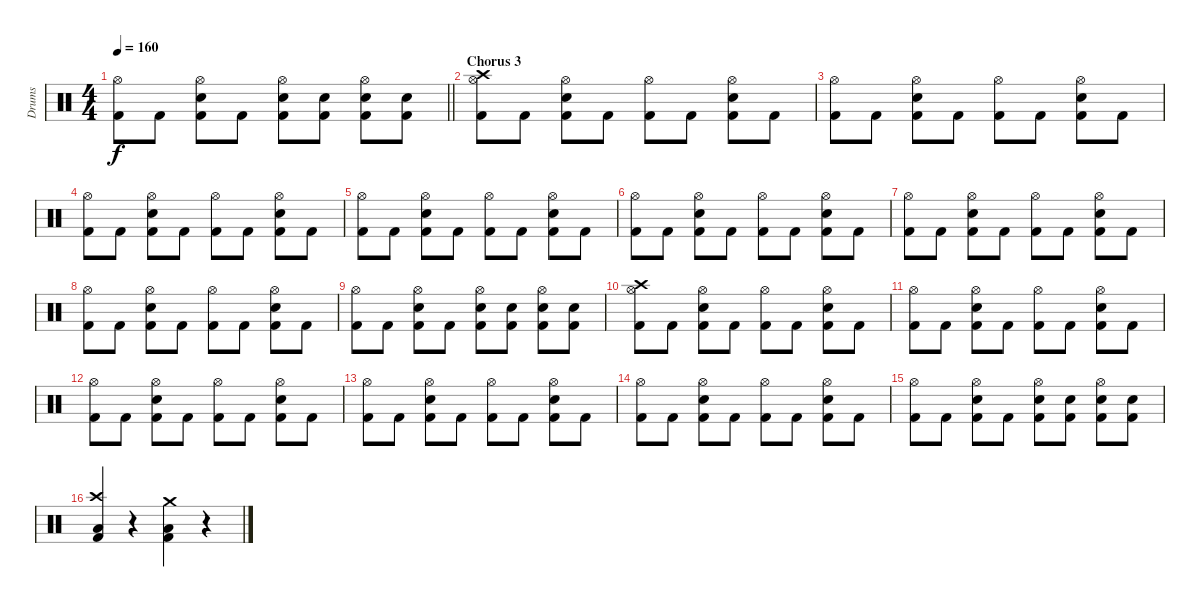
\track ("Drums" "Drums") {instrument percussion}
\staff {score}
\articulation defaults
\ts (4 4)
\tempo 160
\clef neutral
\barLineRight lightlight
\ks c
("Hi-Hat (open)" "Kick (hit) 2").8{dy f} "Kick (hit) 2".8 ("Hi-Hat (open)" "Snare (hit) 2" "Kick (hit) 2").8 "Kick (hit) 2".8 ("Hi-Hat (open)" "Snare (hit) 2" "Kick (hit) 2").8 ("Snare (hit) 2" "Kick (hit) 2").8 ("Hi-Hat (open)" "Snare (hit) 2" "Kick (hit) 2").8 ("Snare (hit) 2" "Kick (hit) 2").8 |
\section ("" "Chorus 3")
("Crash high (hit)" "Hi-Hat (open)" "Kick (hit) 2").8 "Kick (hit) 2".8 ("Hi-Hat (open)" "Snare (hit) 2" "Kick (hit) 2").8 "Kick (hit) 2".8 ("Hi-Hat (open)" "Kick (hit) 2").8 "Kick (hit) 2".8 ("Hi-Hat (open)" "Snare (hit) 2" "Kick (hit) 2").8 "Kick (hit) 2".8 |
("Hi-Hat (open)" "Kick (hit) 2").8 "Kick (hit) 2".8 ("Hi-Hat (open)" "Snare (hit) 2" "Kick (hit) 2").8 "Kick (hit) 2".8 ("Hi-Hat (open)" "Kick (hit) 2").8 "Kick (hit) 2".8 ("Hi-Hat (open)" "Snare (hit) 2" "Kick (hit) 2").8 "Kick (hit) 2".8 |
("Hi-Hat (open)" "Kick (hit) 2").8 "Kick (hit) 2".8 ("Hi-Hat (open)" "Snare (hit) 2" "Kick (hit) 2").8 "Kick (hit) 2".8 ("Hi-Hat (open)" "Kick (hit) 2").8 "Kick (hit) 2".8 ("Hi-Hat (open)" "Snare (hit) 2" "Kick (hit) 2").8 "Kick (hit) 2".8 |
("Hi-Hat (open)" "Kick (hit) 2").8 "Kick (hit) 2".8 ("Hi-Hat (open)" "Snare (hit) 2" "Kick (hit) 2").8 "Kick (hit) 2".8 ("Hi-Hat (open)" "Kick (hit) 2").8 "Kick (hit) 2".8 ("Hi-Hat (open)" "Snare (hit) 2" "Kick (hit) 2").8 "Kick (hit) 2".8 |
("Hi-Hat (open)" "Kick (hit) 2").8 "Kick (hit) 2".8 ("Hi-Hat (open)" "Snare (hit) 2" "Kick (hit) 2").8 "Kick (hit) 2".8 ("Hi-Hat (open)" "Kick (hit) 2").8 "Kick (hit) 2".8 ("Hi-Hat (open)" "Snare (hit) 2" "Kick (hit) 2").8 "Kick (hit) 2".8 |
("Hi-Hat (open)" "Kick (hit) 2").8 "Kick (hit) 2".8 ("Hi-Hat (open)" "Snare (hit) 2" "Kick (hit) 2").8 "Kick (hit) 2".8 ("Hi-Hat (open)" "Kick (hit) 2").8 "Kick (hit) 2".8 ("Hi-Hat (open)" "Snare (hit) 2" "Kick (hit) 2").8 "Kick (hit) 2".8 |
("Hi-Hat (open)" "Kick (hit) 2").8 "Kick (hit) 2".8 ("Hi-Hat (open)" "Snare (hit) 2" "Kick (hit) 2").8 "Kick (hit) 2".8 ("Hi-Hat (open)" "Kick (hit) 2").8 "Kick (hit) 2".8 ("Hi-Hat (open)" "Snare (hit) 2" "Kick (hit) 2").8 "Kick (hit) 2".8 |
("Hi-Hat (open)" "Kick (hit) 2").8 "Kick (hit) 2".8 ("Hi-Hat (open)" "Snare (hit) 2" "Kick (hit) 2").8 "Kick (hit) 2".8 ("Hi-Hat (open)" "Snare (hit) 2" "Kick (hit) 2").8 ("Snare (hit) 2" "Kick (hit) 2").8 ("Hi-Hat (open)" "Snare (hit) 2" "Kick (hit) 2").8 ("Snare (hit) 2" "Kick (hit) 2").8 |
("Crash high (hit)" "Hi-Hat (open)" "Kick (hit) 2").8 "Kick (hit) 2".8 ("Hi-Hat (open)" "Snare (hit) 2" "Kick (hit) 2").8 "Kick (hit) 2".8 ("Hi-Hat (open)" "Kick (hit) 2").8 "Kick (hit) 2".8 ("Hi-Hat (open)" "Snare (hit) 2" "Kick (hit) 2").8 "Kick (hit) 2".8 |
("Hi-Hat (open)" "Kick (hit) 2").8 "Kick (hit) 2".8 ("Hi-Hat (open)" "Snare (hit) 2" "Kick (hit) 2").8 "Kick (hit) 2".8 ("Hi-Hat (open)" "Kick (hit) 2").8 "Kick (hit) 2".8 ("Hi-Hat (open)" "Snare (hit) 2" "Kick (hit) 2").8 "Kick (hit) 2".8 |
("Hi-Hat (open)" "Kick (hit) 2").8 "Kick (hit) 2".8 ("Hi-Hat (open)" "Snare (hit) 2" "Kick (hit) 2").8 "Kick (hit) 2".8 ("Hi-Hat (open)" "Kick (hit) 2").8 "Kick (hit) 2".8 ("Hi-Hat (open)" "Snare (hit) 2" "Kick (hit) 2").8 "Kick (hit) 2".8 |
("Hi-Hat (open)" "Kick (hit) 2").8 "Kick (hit) 2".8 ("Hi-Hat (open)" "Snare (hit) 2" "Kick (hit) 2").8 "Kick (hit) 2".8 ("Hi-Hat (open)" "Kick (hit) 2").8 "Kick (hit) 2".8 ("Hi-Hat (open)" "Snare (hit) 2" "Kick (hit) 2").8 "Kick (hit) 2".8 |
("Hi-Hat (open)" "Kick (hit) 2").8 "Kick (hit) 2".8 ("Hi-Hat (open)" "Snare (hit) 2" "Kick (hit) 2").8 "Kick (hit) 2".8 ("Hi-Hat (open)" "Kick (hit) 2").8 "Kick (hit) 2".8 ("Hi-Hat (open)" "Snare (hit) 2" "Kick (hit) 2").8 "Kick (hit) 2".8 |
("Hi-Hat (open)" "Kick (hit) 2").8 "Kick (hit) 2".8 ("Hi-Hat (open)" "Snare (hit) 2" "Kick (hit) 2").8 "Kick (hit) 2".8 ("Hi-Hat (open)" "Snare (hit) 2" "Kick (hit) 2").8 ("Snare (hit) 2" "Kick (hit) 2").8 ("Hi-Hat (open)" "Snare (hit) 2" "Kick (hit) 2").8 ("Snare (hit) 2" "Kick (hit) 2").8 |
("Crash high (hit)" "Low Floor Tom (hit)" "Kick (hit) 2").4 r.4 ("Crash medium (hit)" "Low Floor Tom (hit)" "Kick (hit) 2").4 r.4
